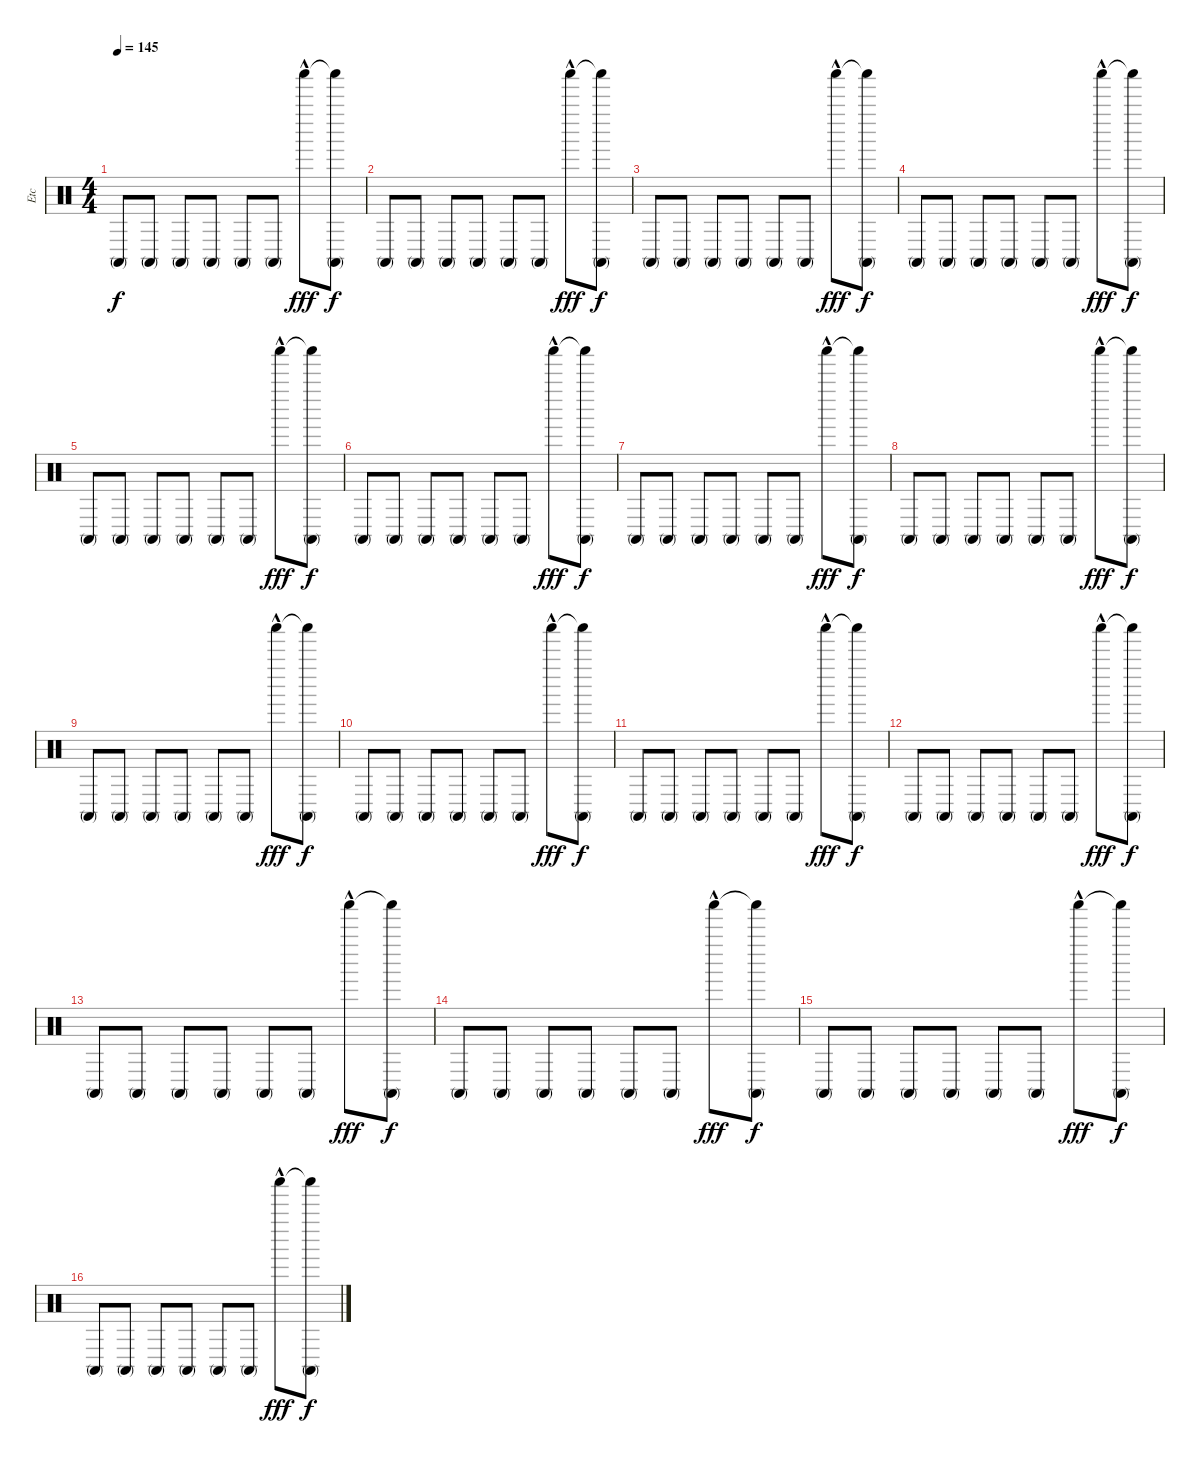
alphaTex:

\track ("Etc" "Etc") {instrument percussion}
\staff {score}
\articulation defaults
\ts (4 4)
\tempo 145
\clef neutral
\ks c "Conga high (mute)".8{dy f} "Conga high (mute)".8 "Conga high (mute)".8 "Conga high (mute)".8 "Conga high (mute)".8 "Conga high (mute)".8 "Shaker (hit)"{hac}.8{dy fff}
("Shaker (hit)"{t} "Conga high (mute)").8{dy f} |
"Conga high (mute)".8 "Conga high (mute)".8 "Conga high (mute)".8 "Conga high (mute)".8 "Conga high (mute)".8 "Conga high (mute)".8 "Shaker (hit)"{hac}.8{dy fff} ("Shaker (hit)"{t} "Conga high (mute)").8{dy f} |
"Conga high (mute)".8 "Conga high (mute)".8 "Conga high (mute)".8 "Conga high (mute)".8 "Conga high (mute)".8 "Conga high (mute)".8 "Shaker (hit)"{hac}.8{dy fff} ("Shaker (hit)"{t} "Conga high (mute)").8{dy f} |
"Conga high (mute)".8 "Conga high (mute)".8 "Conga high (mute)".8 "Conga high (mute)".8 "Conga high (mute)".8 "Conga high (mute)".8 "Shaker (hit)"{hac}.8{dy fff} ("Shaker (hit)"{t} "Conga high (mute)").8{dy f} |
"Conga high (mute)".8 "Conga high (mute)".8 "Conga high (mute)".8 "Conga high (mute)".8 "Conga high (mute)".8 "Conga high (mute)".8 "Shaker (hit)"{hac}.8{dy fff} ("Shaker (hit)"{t} "Conga high (mute)").8{dy f} |
"Conga high (mute)".8 "Conga high (mute)".8 "Conga high (mute)".8 "Conga high (mute)".8 "Conga high (mute)".8 "Conga high (mute)".8 "Shaker (hit)"{hac}.8{dy fff} ("Shaker (hit)"{t} "Conga high (mute)").8{dy f} |
"Conga high (mute)".8 "Conga high (mute)".8 "Conga high (mute)".8 "Conga high (mute)".8 "Conga high (mute)".8 "Conga high (mute)".8 "Shaker (hit)"{hac}.8{dy fff} ("Shaker (hit)"{t} "Conga high (mute)").8{dy f} |
"Conga high (mute)".8 "Conga high (mute)".8 "Conga high (mute)".8 "Conga high (mute)".8 "Conga high (mute)".8 "Conga high (mute)".8 "Shaker (hit)"{hac}.8{dy fff} ("Shaker (hit)"{t} "Conga high (mute)").8{dy f} |
"Conga high (mute)".8 "Conga high (mute)".8 "Conga high (mute)".8 "Conga high (mute)".8 "Conga high (mute)".8 "Conga high (mute)".8 "Shaker (hit)"{hac}.8{dy fff} ("Shaker (hit)"{t} "Conga high (mute)").8{dy f} |
"Conga high (mute)".8 "Conga high (mute)".8 "Conga high (mute)".8 "Conga high (mute)".8 "Conga high (mute)".8 "Conga high (mute)".8 "Shaker (hit)"{hac}.8{dy fff} ("Shaker (hit)"{t} "Conga high (mute)").8{dy f} |
"Conga high (mute)".8 "Conga high (mute)".8 "Conga high (mute)".8 "Conga high (mute)".8 "Conga high (mute)".8 "Conga high (mute)".8 "Shaker (hit)"{hac}.8{dy fff} ("Shaker (hit)"{t} "Conga high (mute)").8{dy f} |
"Conga high (mute)".8 "Conga high (mute)".8 "Conga high (mute)".8 "Conga high (mute)".8 "Conga high (mute)".8 "Conga high (mute)".8 "Shaker (hit)"{hac}.8{dy fff} ("Shaker (hit)"{t} "Conga high (mute)").8{dy f} |
"Conga high (mute)".8 "Conga high (mute)".8 "Conga high (mute)".8 "Conga high (mute)".8 "Conga high (mute)".8 "Conga high (mute)".8 "Shaker (hit)"{hac}.8{dy fff} ("Shaker (hit)"{t} "Conga high (mute)").8{dy f} |
"Conga high (mute)".8 "Conga high (mute)".8 "Conga high (mute)".8 "Conga high (mute)".8 "Conga high (mute)".8 "Conga high (mute)".8 "Shaker (hit)"{hac}.8{dy fff} ("Shaker (hit)"{t} "Conga high (mute)").8{dy f} |
"Conga high (mute)".8 "Conga high (mute)".8 "Conga high (mute)".8 "Conga high (mute)".8 "Conga high (mute)".8 "Conga high (mute)".8 "Shaker (hit)"{hac}.8{dy fff} ("Shaker (hit)"{t} "Conga high (mute)").8{dy f} |
"Conga high (mute)".8 "Conga high (mute)".8 "Conga high (mute)".8 "Conga high (mute)".8 "Conga high (mute)".8 "Conga high (mute)".8 "Shaker (hit)"{hac}.8{dy fff} ("Shaker (hit)"{t} "Conga high (mute)").8{dy f}
